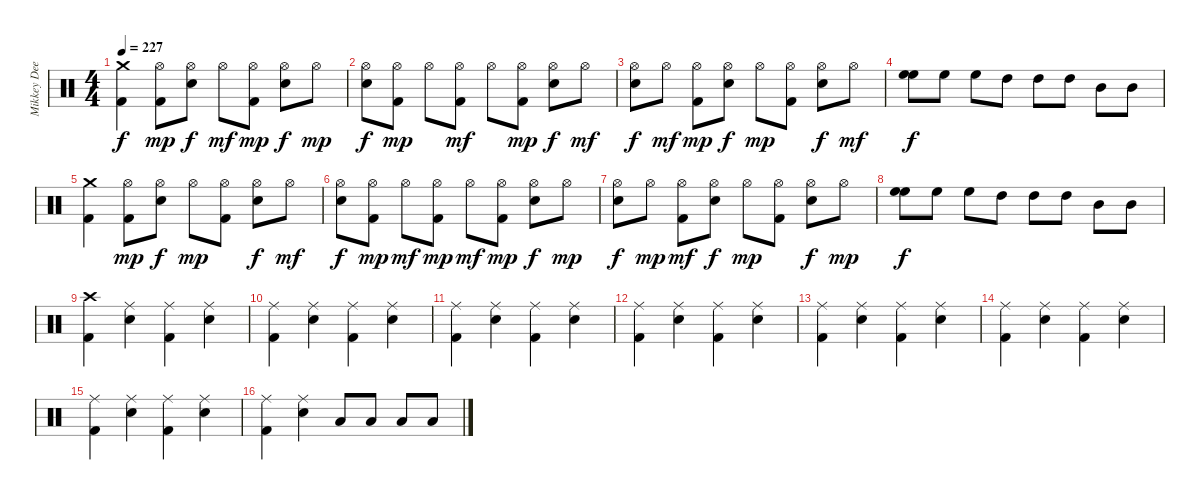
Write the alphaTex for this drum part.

\track ("Mikkey Dee" "Mikkey Dee") {instrument percussion}
\staff {score}
\articulation defaults
\ts (4 4)
\tempo 227
\clef neutral
\ks c
("Crash medium (hit)" "Kick (hit) 2").4{dy f} ("Hi-Hat (open)" "Kick (hit) 2").8{dy mp} ("Hi-Hat (open)" "Electric Snare (hit)").8{dy f} "Hi-Hat (open)".8{dy mf} ("Hi-Hat (open)" "Kick (hit) 2").8{dy mp} ("Hi-Hat (open)" "Electric Snare (hit)").8{dy f} "Hi-Hat (open)".8{dy mp} |
("Electric Snare (hit)" "Hi-Hat (open)").8{dy f} ("Hi-Hat (open)" "Kick (hit) 2").8{dy mp} "Hi-Hat (open)".8 ("Hi-Hat (open)" "Kick (hit) 2").8{dy mf} "Hi-Hat (open)".8 ("Hi-Hat (open)" "Kick (hit) 2").8{dy mp} ("Electric Snare (hit)" "Hi-Hat (open)").8{dy f} "Hi-Hat (open)".8{dy mf} |
("Hi-Hat (open)" "Electric Snare (hit)").8{dy f} "Hi-Hat (open)".8{dy mf} ("Hi-Hat (open)" "Kick (hit) 2").8{dy mp} ("Hi-Hat (open)" "Electric Snare (hit)").8{dy f} "Hi-Hat (open)".8{dy mp} ("Hi-Hat (open)" "Kick (hit) 2").8 ("Hi-Hat (open)" "Electric Snare (hit)").8{dy f} "Hi-Hat (open)".8{dy mf} |
("High Floor Tom (hit)" "High Floor Tom (hit)").8{dy f} "High Floor Tom (hit)".8 "High Floor Tom (hit)".8 "High Tom (hit)".8 "High Tom (hit)".8 "High Tom (hit)".8 "Mid Tom (hit)".8 "Mid Tom (hit)".8 |
("Crash medium (hit)" "Kick (hit) 2").4 ("Kick (hit) 2" "Hi-Hat (open)").8{dy mp} ("Hi-Hat (open)" "Electric Snare (hit)").8{dy f} "Hi-Hat (open)".8{dy mp} ("Hi-Hat (open)" "Kick (hit) 2").8 ("Hi-Hat (open)" "Electric Snare (hit)").8{dy f} "Hi-Hat (open)".8{dy mf} |
("Hi-Hat (open)" "Electric Snare (hit)").8{dy f} ("Hi-Hat (open)" "Kick (hit) 2").8{dy mp} "Hi-Hat (open)".8{dy mf} ("Kick (hit) 2" "Hi-Hat (open)").8{dy mp} "Hi-Hat (open)".8{dy mf} ("Kick (hit) 2" "Hi-Hat (open)").8{dy mp} ("Electric Snare (hit)" "Hi-Hat (open)").8{dy f} "Hi-Hat (open)".8{dy mp} |
("Hi-Hat (open)" "Electric Snare (hit)").8{dy f} "Hi-Hat (open)".8{dy mp} ("Hi-Hat (open)" "Kick (hit) 2").8{dy mf} ("Electric Snare (hit)" "Hi-Hat (open)").8{dy f} "Hi-Hat (open)".8{dy mp} ("Hi-Hat (open)" "Kick (hit) 2").8 ("Electric Snare (hit)" "Hi-Hat (open)").8{dy f} "Hi-Hat (open)".8{dy mp} |
("High Floor Tom (hit)" "High Floor Tom (hit)").8{dy f} "High Floor Tom (hit)".8 "High Floor Tom (hit)".8 "High Tom (hit)".8 "High Tom (hit)".8 "High Tom (hit)".8 "Mid Tom (hit)".8 "Mid Tom (hit)".8 |
("Kick (hit) 2" "Crash high (hit)").4 ("Electric Snare (hit)" "Ride (middle)").4 ("Ride (middle)" "Kick (hit) 2").4 ("Electric Snare (hit)" "Ride (middle)").4 |
("Ride (middle)" "Kick (hit) 2").4 ("Ride (middle)" "Electric Snare (hit)").4 ("Ride (middle)" "Kick (hit) 2").4 ("Ride (middle)" "Electric Snare (hit)").4 |
("Ride (middle)" "Kick (hit) 2").4 ("Ride (middle)" "Electric Snare (hit)").4 ("Ride (middle)" "Kick (hit) 2").4 ("Electric Snare (hit)" "Ride (middle)").4 |
("Ride (middle)" "Kick (hit) 2").4 ("Electric Snare (hit)" "Ride (middle)").4 ("Ride (middle)" "Kick (hit) 2").4 ("Ride (middle)" "Electric Snare (hit)").4 |
("Ride (middle)" "Kick (hit) 2").4 ("Ride (middle)" "Electric Snare (hit)").4 ("Ride (middle)" "Kick (hit) 2").4 ("Ride (middle)" "Electric Snare (hit)").4 |
("Ride (middle)" "Kick (hit) 2").4 ("Ride (middle)" "Electric Snare (hit)").4 ("Ride (middle)" "Kick (hit) 2").4 ("Ride (middle)" "Electric Snare (hit)").4 |
("Ride (middle)" "Kick (hit) 2").4 ("Electric Snare (hit)" "Ride (middle)").4 ("Ride (middle)" "Kick (hit) 2").4 ("Electric Snare (hit)" "Ride (middle)").4 |
("Ride (middle)" "Kick (hit) 2").4 ("Electric Snare (hit)" "Ride (middle)").4 "Low Tom (hit)".8 "Low Tom (hit)".8 "Low Tom (hit)".8 "Low Tom (hit)".8
